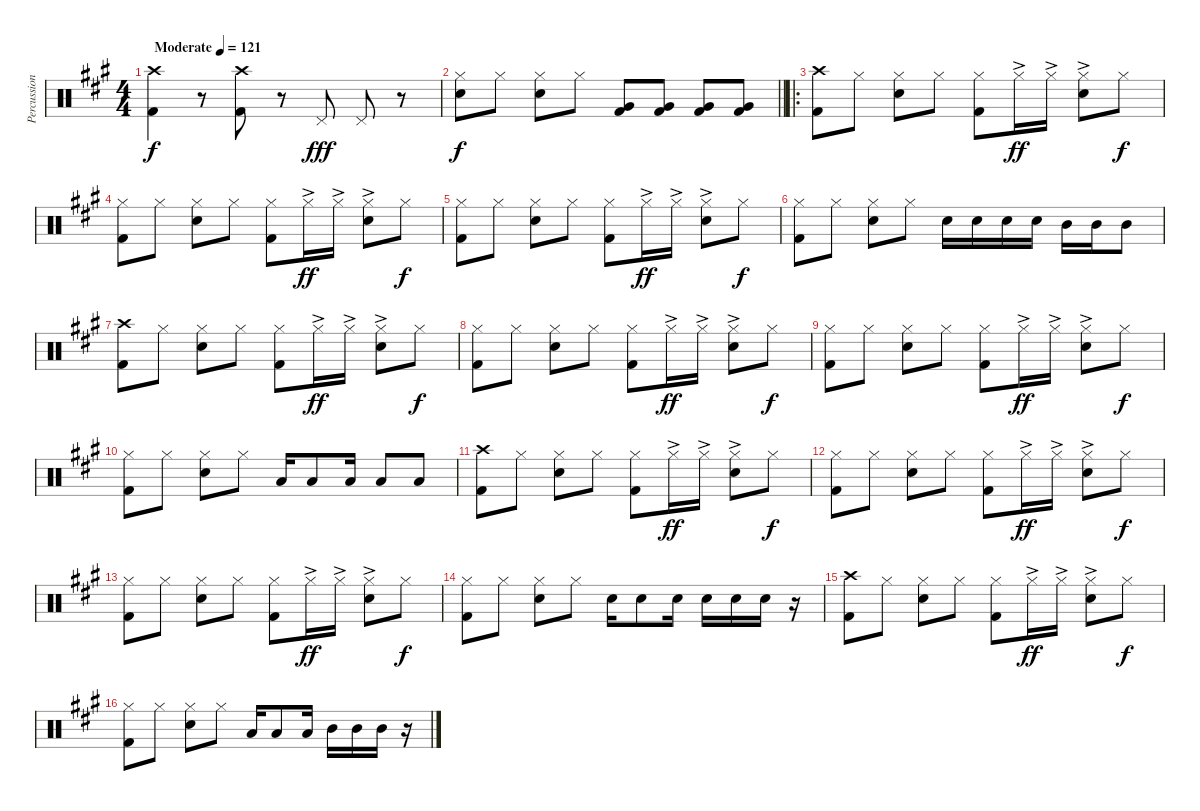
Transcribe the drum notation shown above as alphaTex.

\track ("Percussion" "Percussion") {instrument percussion}
\staff {score}
\articulation defaults
\ts (4 4)
\tempo (121 "Moderate")
\clef neutral
\ks a
("Crash high (hit)" "Kick (hit) 2").4{dy f} r.8 ("Crash high (hit)" "Kick (hit) 2").8 r.8 "Pedal Hi-Hat (hit)".8{dy fff} "Pedal Hi-Hat (hit)".8 r.8 |
\barLineRight lightlight
("Hi-Hat (closed)" "Snare (hit) 2").8{dy f} "Hi-Hat (closed)".8 ("Hi-Hat (closed)" "Snare (hit) 2").8 "Hi-Hat (closed)".8 ("Very Low Tom (hit)" "Kick (hit) 2").8 ("Very Low Tom (hit)" "Kick (hit) 2").8 ("Very Low Tom (hit)" "Kick (hit) 2").8 ("Very Low Tom (hit)" "Kick (hit) 2").8 |
\ro
("Crash high (hit)" "Kick (hit) 2").8 "Hi-Hat (closed)".8 ("Hi-Hat (closed)" "Snare (hit) 2").8 "Hi-Hat (closed)".8 ("Hi-Hat (closed)" "Kick (hit) 2").8 "Hi-Hat (closed)"{ac}.16{dy ff} "Hi-Hat (closed)"{ac}.16 ("Hi-Hat (closed)"{ac} "Snare (hit) 2").8 "Hi-Hat (closed)".8{dy f} |
("Hi-Hat (closed)" "Kick (hit) 2").8 "Hi-Hat (closed)".8 ("Hi-Hat (closed)" "Snare (hit) 2").8 "Hi-Hat (closed)".8 ("Hi-Hat (closed)" "Kick (hit) 2").8 "Hi-Hat (closed)"{ac}.16{dy ff} "Hi-Hat (closed)"{ac}.16 ("Hi-Hat (closed)"{ac} "Snare (hit) 2").8 "Hi-Hat (closed)".8{dy f} |
("Hi-Hat (closed)" "Kick (hit) 2").8 "Hi-Hat (closed)".8 ("Hi-Hat (closed)" "Snare (hit) 2").8 "Hi-Hat (closed)".8 ("Hi-Hat (closed)" "Kick (hit) 2").8 "Hi-Hat (closed)"{ac}.16{dy ff} "Hi-Hat (closed)"{ac}.16 ("Hi-Hat (closed)"{ac} "Snare (hit) 2").8 "Hi-Hat (closed)".8{dy f} |
("Hi-Hat (closed)" "Kick (hit) 2").8 "Hi-Hat (closed)".8 ("Hi-Hat (closed)" "Snare (hit) 2").8 "Hi-Hat (closed)".8 "Snare (hit) 2".16 "Snare (hit) 2".16 "Snare (hit) 2".16 "Snare (hit) 2".16 "Mid Tom (hit)".16 "Mid Tom (hit)".16 "Mid Tom (hit)".8 |
("Crash high (hit)" "Kick (hit) 2").8 "Hi-Hat (closed)".8 ("Hi-Hat (closed)" "Snare (hit) 2").8 "Hi-Hat (closed)".8 ("Hi-Hat (closed)" "Kick (hit) 2").8 "Hi-Hat (closed)"{ac}.16{dy ff} "Hi-Hat (closed)"{ac}.16 ("Hi-Hat (closed)"{ac} "Snare (hit) 2").8 "Hi-Hat (closed)".8{dy f} |
("Hi-Hat (closed)" "Kick (hit) 2").8 "Hi-Hat (closed)".8 ("Hi-Hat (closed)" "Snare (hit) 2").8 "Hi-Hat (closed)".8 ("Hi-Hat (closed)" "Kick (hit) 2").8 "Hi-Hat (closed)"{ac}.16{dy ff} "Hi-Hat (closed)"{ac}.16 ("Hi-Hat (closed)"{ac} "Snare (hit) 2").8 "Hi-Hat (closed)".8{dy f} |
("Hi-Hat (closed)" "Kick (hit) 2").8 "Hi-Hat (closed)".8 ("Hi-Hat (closed)" "Snare (hit) 2").8 "Hi-Hat (closed)".8 ("Hi-Hat (closed)" "Kick (hit) 2").8 "Hi-Hat (closed)"{ac}.16{dy ff} "Hi-Hat (closed)"{ac}.16 ("Hi-Hat (closed)"{ac} "Snare (hit) 2").8 "Hi-Hat (closed)".8{dy f} |
("Hi-Hat (closed)" "Kick (hit) 2").8 "Hi-Hat (closed)".8 ("Hi-Hat (closed)" "Snare (hit) 2").8 "Hi-Hat (closed)".8 "Low Floor Tom (hit)".16 "Low Floor Tom (hit)".8 "Low Floor Tom (hit)".16 "Low Floor Tom (hit)".8 "Low Floor Tom (hit)".8 |
("Crash high (hit)" "Kick (hit) 2").8 "Hi-Hat (closed)".8 ("Hi-Hat (closed)" "Snare (hit) 2").8 "Hi-Hat (closed)".8 ("Hi-Hat (closed)" "Kick (hit) 2").8 "Hi-Hat (closed)"{ac}.16{dy ff} "Hi-Hat (closed)"{ac}.16 ("Hi-Hat (closed)"{ac} "Snare (hit) 2").8 "Hi-Hat (closed)".8{dy f} |
("Hi-Hat (closed)" "Kick (hit) 2").8 "Hi-Hat (closed)".8 ("Hi-Hat (closed)" "Snare (hit) 2").8 "Hi-Hat (closed)".8 ("Hi-Hat (closed)" "Kick (hit) 2").8 "Hi-Hat (closed)"{ac}.16{dy ff} "Hi-Hat (closed)"{ac}.16 ("Hi-Hat (closed)"{ac} "Snare (hit) 2").8 "Hi-Hat (closed)".8{dy f} |
("Hi-Hat (closed)" "Kick (hit) 2").8 "Hi-Hat (closed)".8 ("Hi-Hat (closed)" "Snare (hit) 2").8 "Hi-Hat (closed)".8 ("Hi-Hat (closed)" "Kick (hit) 2").8 "Hi-Hat (closed)"{ac}.16{dy ff} "Hi-Hat (closed)"{ac}.16 ("Hi-Hat (closed)"{ac} "Snare (hit) 2").8 "Hi-Hat (closed)".8{dy f} |
("Hi-Hat (closed)" "Kick (hit) 2").8 "Hi-Hat (closed)".8 ("Hi-Hat (closed)" "Snare (hit) 2").8 "Hi-Hat (closed)".8 "Snare (hit) 2".16 "Snare (hit) 2".8 "Snare (hit) 2".16 "Snare (hit) 2".16 "Snare (hit) 2".16 "Snare (hit) 2".16 r.16 |
("Crash high (hit)" "Kick (hit) 2").8 "Hi-Hat (closed)".8 ("Hi-Hat (closed)" "Snare (hit) 2").8 "Hi-Hat (closed)".8 ("Hi-Hat (closed)" "Kick (hit) 2").8 "Hi-Hat (closed)"{ac}.16{dy ff} "Hi-Hat (closed)"{ac}.16 ("Hi-Hat (closed)"{ac} "Snare (hit) 2").8 "Hi-Hat (closed)".8{dy f} |
("Hi-Hat (closed)" "Kick (hit) 2").8 "Hi-Hat (closed)".8 ("Hi-Hat (closed)" "Snare (hit) 2").8 "Hi-Hat (closed)".8 "Low Floor Tom (hit)".16 "Low Floor Tom (hit)".8 "Low Floor Tom (hit)".16 "Mid Tom (hit)".16 "Mid Tom (hit)".16 "Mid Tom (hit)".16 r.16
